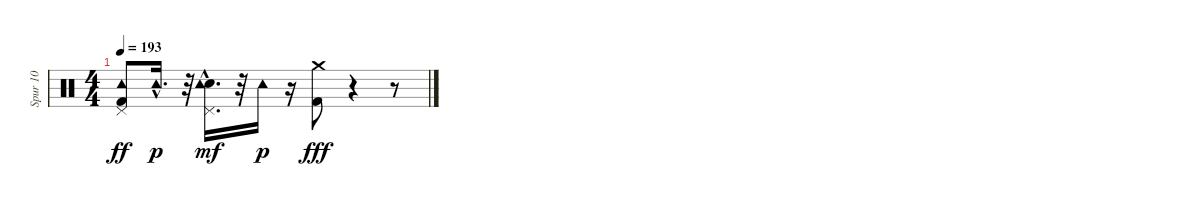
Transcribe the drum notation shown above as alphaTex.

\track ("Spur 10" "Spur 10") {instrument percussion}
\staff {score}
\articulation defaults
\ts (4 4)
\tempo 193
\clef neutral
\ks c
("Tambourine (hit)" "Kick (hit) 2" "Pedal Hi-Hat (hit)").8{dy ff} "Tambourine (hit)"{hac}.16{d dy p} r.32 ("Pedal Hi-Hat (hit)" "Snare (hit) 2"{hac} "Tambourine (hit)").16{d dy mf} r.32 "Tambourine (hit)".16{dy p} r.16 ("Crash medium (hit)" "Kick (hit) 2").8{dy fff} r.4 r.8
